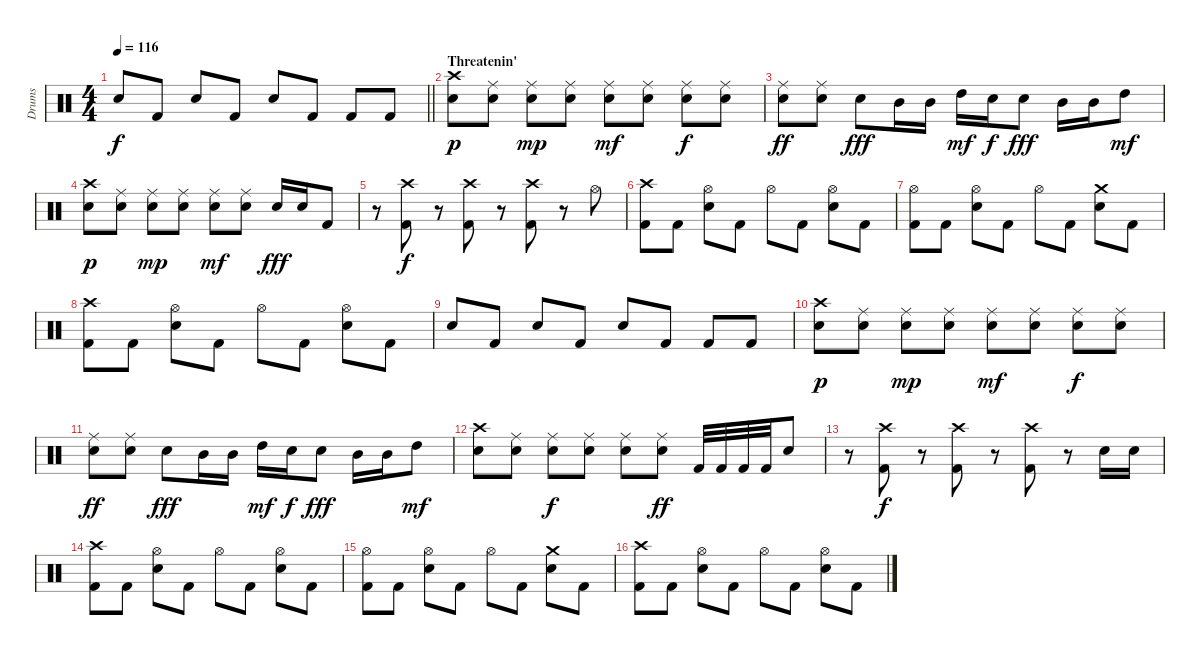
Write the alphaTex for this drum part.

\track ("Drums" "Drums") {instrument percussion}
\staff {score}
\articulation defaults
\ts (4 4)
\tempo 116
\clef neutral
\barLineRight lightlight
\ks c "Electric Snare (hit)".8{dy f} "Kick (hit) 2".8 "Electric Snare (hit)".8 "Kick (hit) 2".8 "Electric Snare (hit)".8 "Kick (hit) 2".8 "Kick (hit) 2".8 "Kick (hit) 2".8
|
\section ("" "Threatenin'")
("Crash high (hit)" "Electric Snare (hit)").8{dy p} ("Ride (middle)" "Electric Snare (hit)").8 ("Ride (middle)" "Electric Snare (hit)").8{dy mp} ("Ride (middle)" "Electric Snare (hit)").8 ("Ride (middle)" "Electric Snare (hit)").8{dy mf} ("Ride (middle)" "Electric Snare (hit)").8 ("Ride (middle)" "Electric Snare (hit)").8{dy f} ("Ride (middle)" "Electric Snare (hit)").8 |
("Ride (middle)" "Electric Snare (hit)").8{dy ff} ("Ride (middle)" "Electric Snare (hit)").8 "Electric Snare (hit)".8{dy fff} "Mid Tom (hit)".16 "Mid Tom (hit)".16 "High Tom (hit)".16{dy mf} "Electric Snare (hit)".16{dy f} "Electric Snare (hit)".8{dy fff} "Mid Tom (hit)".16 "Mid Tom (hit)".16 "High Tom (hit)".8{dy mf} |
("Crash high (hit)" "Electric Snare (hit)").8{dy p} ("Ride (middle)" "Electric Snare (hit)").8 ("Ride (middle)" "Electric Snare (hit)").8{dy mp} ("Ride (middle)" "Electric Snare (hit)").8 ("Ride (middle)" "Electric Snare (hit)").8{dy mf} ("Ride (middle)" "Electric Snare (hit)").8 "Electric Snare (hit)".16{dy fff} "Electric Snare (hit)".16 "Kick (hit) 2".8 |
r.8 ("Crash high (hit)" "Kick (hit) 2").8{dy f} r.8 ("Crash high (hit)" "Kick (hit) 2").8 r.8 ("Crash high (hit)" "Kick (hit) 2").8 r.8 "Hi-Hat (open)".8 |
("Crash high (hit)" "Kick (hit) 2").8 "Kick (hit) 2".8 ("Hi-Hat (open)" "Electric Snare (hit)").8 "Kick (hit) 2".8 "Hi-Hat (open)".8 "Kick (hit) 2".8 ("Hi-Hat (open)" "Electric Snare (hit)").8 "Kick (hit) 2".8 |
("Hi-Hat (open)" "Kick (hit) 2").8 "Kick (hit) 2".8 ("Hi-Hat (open)" "Electric Snare (hit)").8 "Kick (hit) 2".8 "Hi-Hat (open)".8 "Kick (hit) 2".8 ("Crash medium (hit)" "Electric Snare (hit)").8 "Kick (hit) 2".8 |
("Crash high (hit)" "Kick (hit) 2").8 "Kick (hit) 2".8 ("Hi-Hat (open)" "Electric Snare (hit)").8 "Kick (hit) 2".8 "Hi-Hat (open)".8 "Kick (hit) 2".8 ("Hi-Hat (open)" "Electric Snare (hit)").8 "Kick (hit) 2".8 |
"Electric Snare (hit)".8 "Kick (hit) 2".8 "Electric Snare (hit)".8 "Kick (hit) 2".8 "Electric Snare (hit)".8 "Kick (hit) 2".8 "Kick (hit) 2".8 "Kick (hit) 2".8 |
("Crash high (hit)" "Electric Snare (hit)").8{dy p} ("Ride (middle)" "Electric Snare (hit)").8 ("Ride (middle)" "Electric Snare (hit)").8{dy mp} ("Ride (middle)" "Electric Snare (hit)").8 ("Ride (middle)" "Electric Snare (hit)").8{dy mf} ("Ride (middle)" "Electric Snare (hit)").8 ("Ride (middle)" "Electric Snare (hit)").8{dy f} ("Ride (middle)" "Electric Snare (hit)").8 |
("Ride (middle)" "Electric Snare (hit)").8{dy ff} ("Ride (middle)" "Electric Snare (hit)").8 "Electric Snare (hit)".8{dy fff} "Mid Tom (hit)".16 "Mid Tom (hit)".16 "High Tom (hit)".16{dy mf} "Electric Snare (hit)".16{dy f} "Electric Snare (hit)".8{dy fff} "Mid Tom (hit)".16 "Mid Tom (hit)".16 "High Tom (hit)".8{dy mf} |
("Crash high (hit)" "Electric Snare (hit)").8 ("Ride (middle)" "Electric Snare (hit)").8 ("Ride (middle)" "Electric Snare (hit)").8{dy f} ("Ride (middle)" "Electric Snare (hit)").8 ("Ride (middle)" "Electric Snare (hit)").8 ("Ride (middle)" "Electric Snare (hit)").8{dy ff} "Kick (hit) 2".32 "Kick (hit) 2".32 "Kick (hit) 2".32 "Kick (hit) 2".32 "Electric Snare (hit)".8 |
r.8 ("Crash high (hit)" "Kick (hit) 2").8{dy f} r.8 ("Crash high (hit)" "Kick (hit) 2").8 r.8 ("Crash high (hit)" "Kick (hit) 2").8 r.8 "Electric Snare (hit)".16 "Electric Snare (hit)".16 |
("Crash high (hit)" "Kick (hit) 2").8 "Kick (hit) 2".8 ("Hi-Hat (open)" "Electric Snare (hit)").8 "Kick (hit) 2".8 "Hi-Hat (open)".8 "Kick (hit) 2".8 ("Hi-Hat (open)" "Electric Snare (hit)").8 "Kick (hit) 2".8 |
("Hi-Hat (open)" "Kick (hit) 2").8 "Kick (hit) 2".8 ("Hi-Hat (open)" "Electric Snare (hit)").8 "Kick (hit) 2".8 "Hi-Hat (open)".8 "Kick (hit) 2".8 ("Crash medium (hit)" "Electric Snare (hit)").8 "Kick (hit) 2".8 |
("Crash high (hit)" "Kick (hit) 2").8 "Kick (hit) 2".8 ("Hi-Hat (open)" "Electric Snare (hit)").8 "Kick (hit) 2".8 "Hi-Hat (open)".8 "Kick (hit) 2".8 ("Hi-Hat (open)" "Electric Snare (hit)").8 "Kick (hit) 2".8
